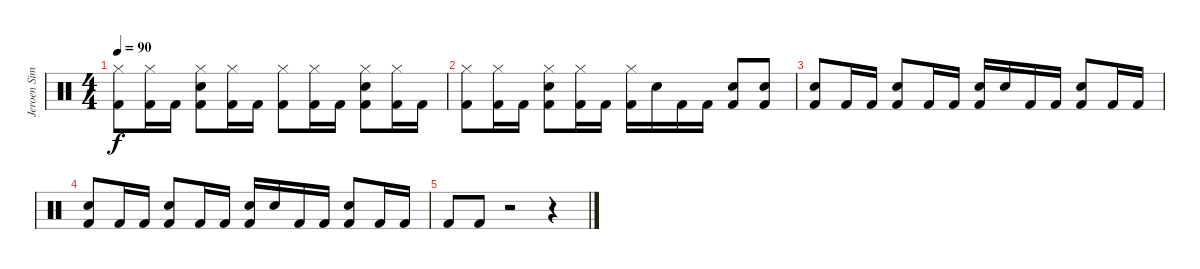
\track ("Jeroen Simons" "Jeroen Sim") {instrument percussion}
\staff {score}
\articulation defaults
\ts (4 4)
\tempo 90
\clef neutral
\ks c
("Kick (hit) 2" "Hi-Hat (closed)").8{dy f} ("Kick (hit) 2" "Hi-Hat (closed)").16 "Kick (hit) 2".16 ("Kick (hit) 2" "Snare (hit) 2" "Hi-Hat (closed)").8 ("Kick (hit) 2" "Hi-Hat (closed)").16 "Kick (hit) 2".16 ("Kick (hit) 2" "Hi-Hat (closed)").8 ("Kick (hit) 2" "Hi-Hat (closed)").16 "Kick (hit) 2".16 ("Kick (hit) 2" "Snare (hit) 2" "Hi-Hat (closed)").8 ("Kick (hit) 2" "Hi-Hat (closed)").16 "Kick (hit) 2".16 |
("Kick (hit) 2" "Hi-Hat (closed)").8 ("Kick (hit) 2" "Hi-Hat (closed)").16 "Kick (hit) 2".16 ("Kick (hit) 2" "Snare (hit) 2" "Hi-Hat (closed)").8 ("Kick (hit) 2" "Hi-Hat (closed)").16 "Kick (hit) 2".16 ("Kick (hit) 2" "Hi-Hat (closed)").16 "Snare (hit) 2".16 "Kick (hit) 2".16 "Kick (hit) 2".16 ("Kick (hit) 2" "Snare (hit) 2").8 ("Kick (hit) 2" "Snare (hit) 2").8 |
("Kick (hit) 2" "Snare (hit) 2").8 "Kick (hit) 2".16 "Kick (hit) 2".16 ("Kick (hit) 2" "Snare (hit) 2").8 "Kick (hit) 2".16 "Kick (hit) 2".16 ("Kick (hit) 2" "Snare (hit) 2").16 "Snare (hit) 2".16 "Kick (hit) 2".16 "Kick (hit) 2".16 ("Kick (hit) 2" "Snare (hit) 2").8 "Kick (hit) 2".16 "Kick (hit) 2".16 |
("Kick (hit) 2" "Snare (hit) 2").8 "Kick (hit) 2".16 "Kick (hit) 2".16 ("Kick (hit) 2" "Snare (hit) 2").8 "Kick (hit) 2".16 "Kick (hit) 2".16 ("Kick (hit) 2" "Snare (hit) 2").16 "Snare (hit) 2".16 "Kick (hit) 2".16 "Kick (hit) 2".16 ("Kick (hit) 2" "Snare (hit) 2").8 "Kick (hit) 2".16 "Kick (hit) 2".16 |
"Kick (hit) 2".8 "Kick (hit) 2".8 r.2 r.4
